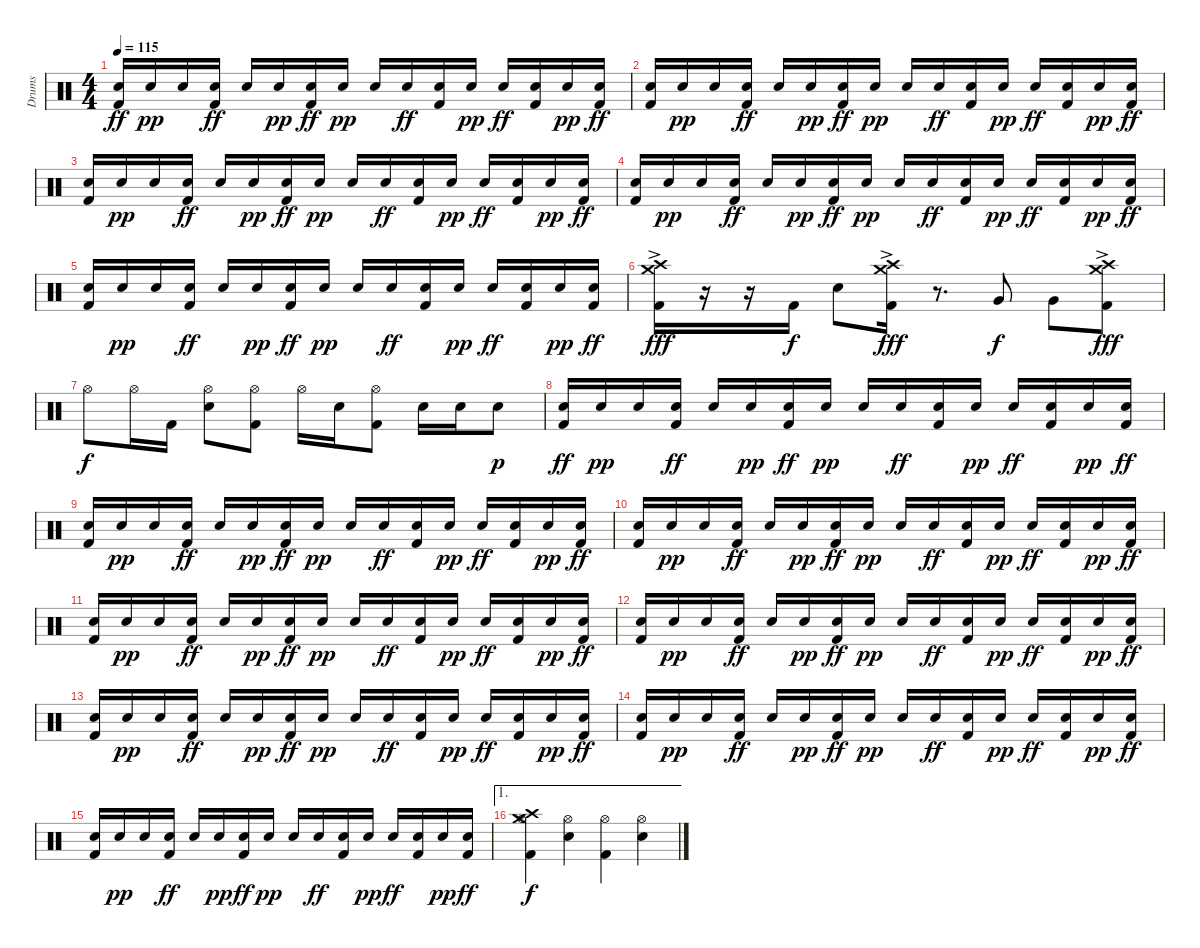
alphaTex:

\track ("Drums" "Drums") {instrument percussion}
\staff {score}
\articulation defaults
\ts (4 4)
\tempo 115
\clef neutral
\ks c
("Snare (hit) 2" "Kick (hit) 2").16{dy ff} "Snare (hit) 2".16{dy pp} "Snare (hit) 2".16 ("Snare (hit) 2" "Kick (hit) 2").16{dy ff} "Snare (hit) 2".16 "Snare (hit) 2".16{dy pp} ("Snare (hit) 2" "Kick (hit) 2").16{dy ff} "Snare (hit) 2".16{dy pp} "Snare (hit) 2".16 "Snare (hit) 2".16{dy ff} ("Snare (hit) 2" "Kick (hit) 2").16 "Snare (hit) 2".16{dy pp} "Snare (hit) 2".16{dy ff} ("Snare (hit) 2" "Kick (hit) 2").16 "Snare (hit) 2".16{dy pp} ("Snare (hit) 2" "Kick (hit) 2").16{dy ff} |
("Snare (hit) 2" "Kick (hit) 2").16 "Snare (hit) 2".16{dy pp} "Snare (hit) 2".16 ("Snare (hit) 2" "Kick (hit) 2").16{dy ff} "Snare (hit) 2".16 "Snare (hit) 2".16{dy pp} ("Snare (hit) 2" "Kick (hit) 2").16{dy ff} "Snare (hit) 2".16{dy pp} "Snare (hit) 2".16 "Snare (hit) 2".16{dy ff} ("Snare (hit) 2" "Kick (hit) 2").16 "Snare (hit) 2".16{dy pp} "Snare (hit) 2".16{dy ff} ("Snare (hit) 2" "Kick (hit) 2").16 "Snare (hit) 2".16{dy pp} ("Snare (hit) 2" "Kick (hit) 2").16{dy ff} |
("Snare (hit) 2" "Kick (hit) 2").16 "Snare (hit) 2".16{dy pp} "Snare (hit) 2".16 ("Snare (hit) 2" "Kick (hit) 2").16{dy ff} "Snare (hit) 2".16 "Snare (hit) 2".16{dy pp} ("Snare (hit) 2" "Kick (hit) 2").16{dy ff} "Snare (hit) 2".16{dy pp} "Snare (hit) 2".16 "Snare (hit) 2".16{dy ff} ("Snare (hit) 2" "Kick (hit) 2").16 "Snare (hit) 2".16{dy pp} "Snare (hit) 2".16{dy ff} ("Snare (hit) 2" "Kick (hit) 2").16 "Snare (hit) 2".16{dy pp} ("Snare (hit) 2" "Kick (hit) 2").16{dy ff} |
("Snare (hit) 2" "Kick (hit) 2").16 "Snare (hit) 2".16{dy pp} "Snare (hit) 2".16 ("Snare (hit) 2" "Kick (hit) 2").16{dy ff} "Snare (hit) 2".16 "Snare (hit) 2".16{dy pp} ("Snare (hit) 2" "Kick (hit) 2").16{dy ff} "Snare (hit) 2".16{dy pp} "Snare (hit) 2".16 "Snare (hit) 2".16{dy ff} ("Snare (hit) 2" "Kick (hit) 2").16 "Snare (hit) 2".16{dy pp} "Snare (hit) 2".16{dy ff} ("Snare (hit) 2" "Kick (hit) 2").16 "Snare (hit) 2".16{dy pp} ("Snare (hit) 2" "Kick (hit) 2").16{dy ff} |
("Snare (hit) 2" "Kick (hit) 2").16 "Snare (hit) 2".16{dy pp} "Snare (hit) 2".16 ("Snare (hit) 2" "Kick (hit) 2").16{dy ff} "Snare (hit) 2".16 "Snare (hit) 2".16{dy pp} ("Snare (hit) 2" "Kick (hit) 2").16{dy ff} "Snare (hit) 2".16{dy pp} "Snare (hit) 2".16 "Snare (hit) 2".16{dy ff} ("Snare (hit) 2" "Kick (hit) 2").16 "Snare (hit) 2".16{dy pp} "Snare (hit) 2".16{dy ff} ("Snare (hit) 2" "Kick (hit) 2").16 "Snare (hit) 2".16{dy pp} ("Snare (hit) 2" "Kick (hit) 2").16{dy ff} |
("Crash medium (hit)"{ac} "Crash high (hit)"{ac} "Kick (hit) 2"{ac}).16{dy fff} r.16 r.16 "Kick (hit) 2".16{dy f} "Snare (hit) 2".8 ("Crash medium (hit)"{ac} "Crash high (hit)"{ac} "Kick (hit) 2"{ac}).16{dy fff} r.8{d} "Very Low Tom (hit)".8{dy f} "Very Low Tom (hit)".8 ("Crash medium (hit)"{ac} "Crash high (hit)"{ac} "Kick (hit) 2"{ac}).8{dy fff} |
"Hi-Hat (open)".8{dy f} "Hi-Hat (open)".16 "Kick (hit) 2".16 ("Hi-Hat (open)" "Snare (hit) 2").8 ("Hi-Hat (open)" "Kick (hit) 2").8 "Hi-Hat (open)".16 "Snare (hit) 2".16 ("Hi-Hat (open)" "Kick (hit) 2").8 "Snare (hit) 2".16 "Snare (hit) 2".16 "Snare (hit) 2".8{dy p} |
("Snare (hit) 2" "Kick (hit) 2").16{dy ff} "Snare (hit) 2".16{dy pp} "Snare (hit) 2".16 ("Snare (hit) 2" "Kick (hit) 2").16{dy ff} "Snare (hit) 2".16 "Snare (hit) 2".16{dy pp} ("Snare (hit) 2" "Kick (hit) 2").16{dy ff} "Snare (hit) 2".16{dy pp} "Snare (hit) 2".16 "Snare (hit) 2".16{dy ff} ("Snare (hit) 2" "Kick (hit) 2").16 "Snare (hit) 2".16{dy pp} "Snare (hit) 2".16{dy ff} ("Snare (hit) 2" "Kick (hit) 2").16 "Snare (hit) 2".16{dy pp} ("Snare (hit) 2" "Kick (hit) 2").16{dy ff} |
("Snare (hit) 2" "Kick (hit) 2").16 "Snare (hit) 2".16{dy pp} "Snare (hit) 2".16 ("Snare (hit) 2" "Kick (hit) 2").16{dy ff} "Snare (hit) 2".16 "Snare (hit) 2".16{dy pp} ("Snare (hit) 2" "Kick (hit) 2").16{dy ff} "Snare (hit) 2".16{dy pp} "Snare (hit) 2".16 "Snare (hit) 2".16{dy ff} ("Snare (hit) 2" "Kick (hit) 2").16 "Snare (hit) 2".16{dy pp} "Snare (hit) 2".16{dy ff} ("Snare (hit) 2" "Kick (hit) 2").16 "Snare (hit) 2".16{dy pp} ("Snare (hit) 2" "Kick (hit) 2").16{dy ff} |
("Snare (hit) 2" "Kick (hit) 2").16 "Snare (hit) 2".16{dy pp} "Snare (hit) 2".16 ("Snare (hit) 2" "Kick (hit) 2").16{dy ff} "Snare (hit) 2".16 "Snare (hit) 2".16{dy pp} ("Snare (hit) 2" "Kick (hit) 2").16{dy ff} "Snare (hit) 2".16{dy pp} "Snare (hit) 2".16 "Snare (hit) 2".16{dy ff} ("Snare (hit) 2" "Kick (hit) 2").16 "Snare (hit) 2".16{dy pp} "Snare (hit) 2".16{dy ff} ("Snare (hit) 2" "Kick (hit) 2").16 "Snare (hit) 2".16{dy pp} ("Snare (hit) 2" "Kick (hit) 2").16{dy ff} |
("Snare (hit) 2" "Kick (hit) 2").16 "Snare (hit) 2".16{dy pp} "Snare (hit) 2".16 ("Snare (hit) 2" "Kick (hit) 2").16{dy ff} "Snare (hit) 2".16 "Snare (hit) 2".16{dy pp} ("Snare (hit) 2" "Kick (hit) 2").16{dy ff} "Snare (hit) 2".16{dy pp} "Snare (hit) 2".16 "Snare (hit) 2".16{dy ff} ("Snare (hit) 2" "Kick (hit) 2").16 "Snare (hit) 2".16{dy pp} "Snare (hit) 2".16{dy ff} ("Snare (hit) 2" "Kick (hit) 2").16 "Snare (hit) 2".16{dy pp} ("Snare (hit) 2" "Kick (hit) 2").16{dy ff} |
("Snare (hit) 2" "Kick (hit) 2").16 "Snare (hit) 2".16{dy pp} "Snare (hit) 2".16 ("Snare (hit) 2" "Kick (hit) 2").16{dy ff} "Snare (hit) 2".16 "Snare (hit) 2".16{dy pp} ("Snare (hit) 2" "Kick (hit) 2").16{dy ff} "Snare (hit) 2".16{dy pp} "Snare (hit) 2".16 "Snare (hit) 2".16{dy ff} ("Snare (hit) 2" "Kick (hit) 2").16 "Snare (hit) 2".16{dy pp} "Snare (hit) 2".16{dy ff} ("Snare (hit) 2" "Kick (hit) 2").16 "Snare (hit) 2".16{dy pp} ("Snare (hit) 2" "Kick (hit) 2").16{dy ff} |
("Snare (hit) 2" "Kick (hit) 2").16 "Snare (hit) 2".16{dy pp} "Snare (hit) 2".16 ("Snare (hit) 2" "Kick (hit) 2").16{dy ff} "Snare (hit) 2".16 "Snare (hit) 2".16{dy pp} ("Snare (hit) 2" "Kick (hit) 2").16{dy ff} "Snare (hit) 2".16{dy pp} "Snare (hit) 2".16 "Snare (hit) 2".16{dy ff} ("Snare (hit) 2" "Kick (hit) 2").16 "Snare (hit) 2".16{dy pp} "Snare (hit) 2".16{dy ff} ("Snare (hit) 2" "Kick (hit) 2").16 "Snare (hit) 2".16{dy pp} ("Snare (hit) 2" "Kick (hit) 2").16{dy ff} |
("Snare (hit) 2" "Kick (hit) 2").16 "Snare (hit) 2".16{dy pp} "Snare (hit) 2".16 ("Snare (hit) 2" "Kick (hit) 2").16{dy ff} "Snare (hit) 2".16 "Snare (hit) 2".16{dy pp} ("Snare (hit) 2" "Kick (hit) 2").16{dy ff} "Snare (hit) 2".16{dy pp} "Snare (hit) 2".16 "Snare (hit) 2".16{dy ff} ("Snare (hit) 2" "Kick (hit) 2").16 "Snare (hit) 2".16{dy pp} "Snare (hit) 2".16{dy ff} ("Snare (hit) 2" "Kick (hit) 2").16 "Snare (hit) 2".16{dy pp} ("Snare (hit) 2" "Kick (hit) 2").16{dy ff} |
("Snare (hit) 2" "Kick (hit) 2").16 "Snare (hit) 2".16{dy pp} "Snare (hit) 2".16 ("Snare (hit) 2" "Kick (hit) 2").16{dy ff} "Snare (hit) 2".16 "Snare (hit) 2".16{dy pp} ("Snare (hit) 2" "Kick (hit) 2").16{dy ff} "Snare (hit) 2".16{dy pp} "Snare (hit) 2".16 "Snare (hit) 2".16{dy ff} ("Snare (hit) 2" "Kick (hit) 2").16 "Snare (hit) 2".16{dy pp} "Snare (hit) 2".16{dy ff} ("Snare (hit) 2" "Kick (hit) 2").16 "Snare (hit) 2".16{dy pp} ("Snare (hit) 2" "Kick (hit) 2").16{dy ff} |
\ae 1
("Crash medium (hit)" "Crash high (hit)" "Hi-Hat (open)" "Kick (hit) 2").4{dy f} ("Hi-Hat (open)" "Snare (hit) 2").4 ("Hi-Hat (open)" "Kick (hit) 2").4 ("Hi-Hat (open)" "Snare (hit) 2").4
